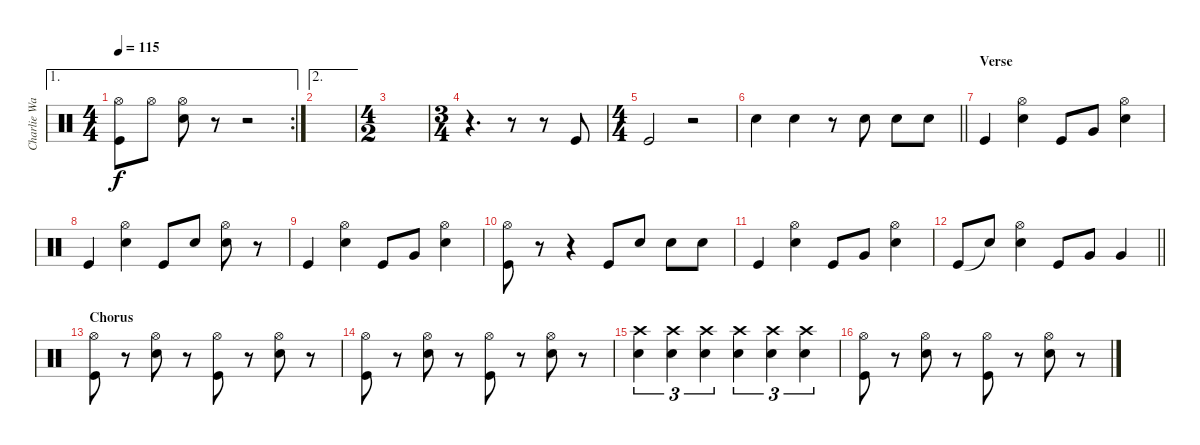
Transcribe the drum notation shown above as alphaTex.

\track ("Charlie Watts" "Charlie Wa") {instrument percussion}
\staff {score}
\articulation defaults
\ae 1
\rc 2
\ts (4 4)
\tempo 115
\clef neutral
\ks c
("Hi-Hat (open)" "Kick (hit)").8{dy f} "Hi-Hat (open)".8 ("Hi-Hat (open)" "Snare (hit) 2").8 r.8 r.2 |
\ae 2
|
\ts (4 2)
|
\ts (3 4)
r.4{d} r.8 r.8 "Kick (hit)".8 |
\ts (4 4)
"Kick (hit)".2 r.2 |
\barLineRight lightlight "Snare (hit) 2".4 "Snare (hit) 2".4
r.8 "Snare (hit) 2".8 "Snare (hit) 2".8 "Snare (hit) 2".8 |
\section ("" "Verse")
"Kick (hit)".4 ("Hi-Hat (open)" "Snare (hit) 2").4 "Kick (hit)".8 "Very Low Tom (hit)".8 ("Hi-Hat (open)" "Snare (hit) 2").4 |
"Kick (hit)".4 ("Hi-Hat (open)" "Snare (hit) 2").4 "Kick (hit)".8 "Snare (hit) 2".8 ("Hi-Hat (open)" "Snare (hit) 2").8 r.8 |
"Kick (hit)".4 ("Hi-Hat (open)" "Snare (hit) 2").4 "Kick (hit)".8 "Very Low Tom (hit)".8 ("Hi-Hat (open)" "Snare (hit) 2").4 |
("Hi-Hat (open)" "Kick (hit)").8 r.8 r.4 "Kick (hit)".8 "Snare (hit) 2".8 "Snare (hit) 2".8 "Snare (hit) 2".8 |
"Kick (hit)".4 ("Hi-Hat (open)" "Snare (hit) 2").4 "Kick (hit)".8 "Very Low Tom (hit)".8 ("Hi-Hat (open)" "Snare (hit) 2").4 |
\barLineRight lightlight "Kick (hit)".8 "Snare (hit) 2"{t}.8
("Hi-Hat (open)" "Snare (hit) 2").4 "Kick (hit)".8 "Very Low Tom (hit)".8 "Very Low Tom (hit)".4 |
\section ("" "Chorus")
("Hi-Hat (open)" "Kick (hit)").8 r.8 ("Hi-Hat (open)" "Snare (hit) 2").8 r.8 ("Hi-Hat (open)" "Kick (hit)").8 r.8 ("Hi-Hat (open)" "Snare (hit) 2").8 r.8 |
("Hi-Hat (open)" "Kick (hit)").8 r.8 ("Hi-Hat (open)" "Snare (hit) 2").8 r.8 ("Hi-Hat (open)" "Kick (hit)").8 r.8 ("Hi-Hat (open)" "Snare (hit) 2").8 r.8 |
("Crash high (hit)" "Snare (hit) 2").4{tu (3 2)} ("Crash high (hit)" "Snare (hit) 2").4{tu (3 2)} ("Crash high (hit)" "Snare (hit) 2").4{tu (3 2)} ("Crash high (hit)" "Snare (hit) 2").4{tu (3 2)} ("Crash high (hit)" "Snare (hit) 2").4{tu (3 2)} ("Crash high (hit)" "Snare (hit) 2").4{tu (3 2)} |
("Hi-Hat (open)" "Kick (hit)").8 r.8 ("Hi-Hat (open)" "Snare (hit) 2").8 r.8 ("Hi-Hat (open)" "Kick (hit)").8 r.8 ("Hi-Hat (open)" "Snare (hit) 2").8 r.8
